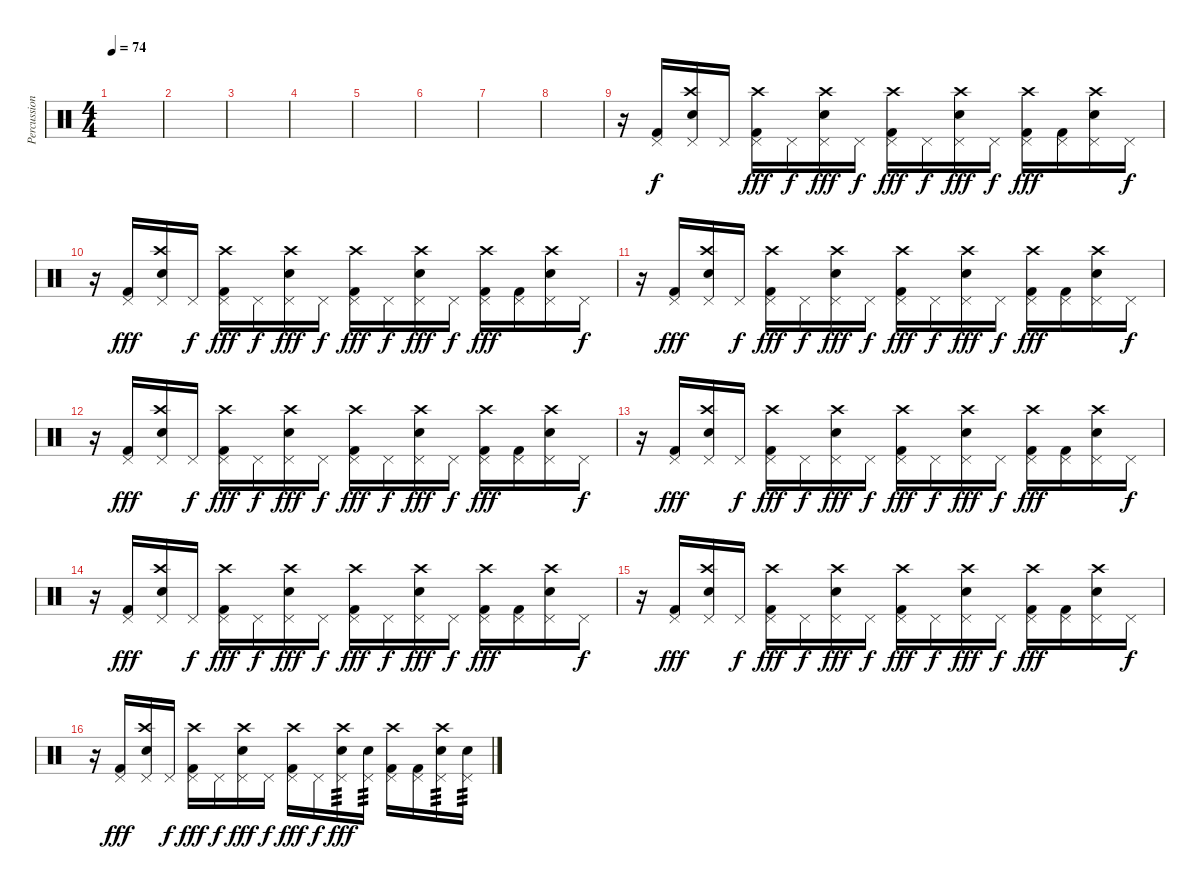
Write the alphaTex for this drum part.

\track ("Percussion" "Percussion") {instrument percussion}
\staff {score}
\articulation defaults
\ts (4 4)
\tempo 74
\clef neutral
\ks c
|
|
|
|
|
|
|
|
r.16 ("Pedal Hi-Hat (hit)" "Kick (hit) 2").16 ("Crash high (hit)" "Pedal Hi-Hat (hit)" "Electric Snare (hit)").16 "Pedal Hi-Hat (hit)".16{dy f} ("Crash high (hit)" "Pedal Hi-Hat (hit)" "Kick (hit) 2").16{dy fff} "Pedal Hi-Hat (hit)".16{dy f} ("Crash high (hit)" "Pedal Hi-Hat (hit)" "Electric Snare (hit)").16{dy fff} "Pedal Hi-Hat (hit)".16{dy f} ("Crash high (hit)" "Pedal Hi-Hat (hit)" "Kick (hit) 2").16{dy fff} "Pedal Hi-Hat (hit)".16{dy f} ("Crash high (hit)" "Pedal Hi-Hat (hit)" "Electric Snare (hit)").16{dy fff} "Pedal Hi-Hat (hit)".16{dy f} ("Crash high (hit)" "Pedal Hi-Hat (hit)" "Kick (hit) 2").16{dy fff} ("Pedal Hi-Hat (hit)" "Kick (hit) 2").16 ("Crash high (hit)" "Pedal Hi-Hat (hit)" "Electric Snare (hit)").16 "Pedal Hi-Hat (hit)".16{dy f} |
r.16{volume 0} ("Pedal Hi-Hat (hit)" "Kick (hit) 2").16{dy fff volume 13} ("Crash high (hit)" "Pedal Hi-Hat (hit)" "Electric Snare (hit)").16 "Pedal Hi-Hat (hit)".16{dy f} ("Crash high (hit)" "Pedal Hi-Hat (hit)" "Kick (hit) 2").16{dy fff} "Pedal Hi-Hat (hit)".16{dy f} ("Crash high (hit)" "Pedal Hi-Hat (hit)" "Electric Snare (hit)").16{dy fff} "Pedal Hi-Hat (hit)".16{dy f} ("Crash high (hit)" "Pedal Hi-Hat (hit)" "Kick (hit) 2").16{dy fff} "Pedal Hi-Hat (hit)".16{dy f} ("Crash high (hit)" "Pedal Hi-Hat (hit)" "Electric Snare (hit)").16{dy fff} "Pedal Hi-Hat (hit)".16{dy f} ("Crash high (hit)" "Pedal Hi-Hat (hit)" "Kick (hit) 2").16{dy fff} ("Pedal Hi-Hat (hit)" "Kick (hit) 2").16 ("Crash high (hit)" "Pedal Hi-Hat (hit)" "Electric Snare (hit)").16 "Pedal Hi-Hat (hit)".16{dy f} |
r.16{volume 0} ("Pedal Hi-Hat (hit)" "Kick (hit) 2").16{dy fff volume 13} ("Crash high (hit)" "Pedal Hi-Hat (hit)" "Electric Snare (hit)").16 "Pedal Hi-Hat (hit)".16{dy f} ("Crash high (hit)" "Pedal Hi-Hat (hit)" "Kick (hit) 2").16{dy fff} "Pedal Hi-Hat (hit)".16{dy f} ("Crash high (hit)" "Pedal Hi-Hat (hit)" "Electric Snare (hit)").16{dy fff} "Pedal Hi-Hat (hit)".16{dy f} ("Crash high (hit)" "Pedal Hi-Hat (hit)" "Kick (hit) 2").16{dy fff} "Pedal Hi-Hat (hit)".16{dy f} ("Crash high (hit)" "Pedal Hi-Hat (hit)" "Electric Snare (hit)").16{dy fff} "Pedal Hi-Hat (hit)".16{dy f} ("Crash high (hit)" "Pedal Hi-Hat (hit)" "Kick (hit) 2").16{dy fff} ("Pedal Hi-Hat (hit)" "Kick (hit) 2").16 ("Crash high (hit)" "Pedal Hi-Hat (hit)" "Electric Snare (hit)").16 "Pedal Hi-Hat (hit)".16{dy f} |
r.16{volume 0} ("Pedal Hi-Hat (hit)" "Kick (hit) 2").16{dy fff volume 13} ("Crash high (hit)" "Pedal Hi-Hat (hit)" "Electric Snare (hit)").16 "Pedal Hi-Hat (hit)".16{dy f} ("Crash high (hit)" "Pedal Hi-Hat (hit)" "Kick (hit) 2").16{dy fff} "Pedal Hi-Hat (hit)".16{dy f} ("Crash high (hit)" "Pedal Hi-Hat (hit)" "Electric Snare (hit)").16{dy fff} "Pedal Hi-Hat (hit)".16{dy f} ("Crash high (hit)" "Pedal Hi-Hat (hit)" "Kick (hit) 2").16{dy fff} "Pedal Hi-Hat (hit)".16{dy f} ("Crash high (hit)" "Pedal Hi-Hat (hit)" "Electric Snare (hit)").16{dy fff} "Pedal Hi-Hat (hit)".16{dy f} ("Crash high (hit)" "Pedal Hi-Hat (hit)" "Kick (hit) 2").16{dy fff} ("Pedal Hi-Hat (hit)" "Kick (hit) 2").16 ("Crash high (hit)" "Pedal Hi-Hat (hit)" "Electric Snare (hit)").16 "Pedal Hi-Hat (hit)".16{dy f} |
r.16{volume 0} ("Pedal Hi-Hat (hit)" "Kick (hit) 2").16{dy fff volume 13} ("Crash high (hit)" "Pedal Hi-Hat (hit)" "Electric Snare (hit)").16 "Pedal Hi-Hat (hit)".16{dy f} ("Crash high (hit)" "Pedal Hi-Hat (hit)" "Kick (hit) 2").16{dy fff} "Pedal Hi-Hat (hit)".16{dy f} ("Crash high (hit)" "Pedal Hi-Hat (hit)" "Electric Snare (hit)").16{dy fff} "Pedal Hi-Hat (hit)".16{dy f} ("Crash high (hit)" "Pedal Hi-Hat (hit)" "Kick (hit) 2").16{dy fff} "Pedal Hi-Hat (hit)".16{dy f} ("Crash high (hit)" "Pedal Hi-Hat (hit)" "Electric Snare (hit)").16{dy fff} "Pedal Hi-Hat (hit)".16{dy f} ("Crash high (hit)" "Pedal Hi-Hat (hit)" "Kick (hit) 2").16{dy fff} ("Pedal Hi-Hat (hit)" "Kick (hit) 2").16 ("Crash high (hit)" "Pedal Hi-Hat (hit)" "Electric Snare (hit)").16 "Pedal Hi-Hat (hit)".16{dy f} |
r.16{volume 0} ("Pedal Hi-Hat (hit)" "Kick (hit) 2").16{dy fff volume 13} ("Crash high (hit)" "Pedal Hi-Hat (hit)" "Electric Snare (hit)").16 "Pedal Hi-Hat (hit)".16{dy f} ("Crash high (hit)" "Pedal Hi-Hat (hit)" "Kick (hit) 2").16{dy fff} "Pedal Hi-Hat (hit)".16{dy f} ("Crash high (hit)" "Pedal Hi-Hat (hit)" "Electric Snare (hit)").16{dy fff} "Pedal Hi-Hat (hit)".16{dy f} ("Crash high (hit)" "Pedal Hi-Hat (hit)" "Kick (hit) 2").16{dy fff} "Pedal Hi-Hat (hit)".16{dy f} ("Crash high (hit)" "Pedal Hi-Hat (hit)" "Electric Snare (hit)").16{dy fff} "Pedal Hi-Hat (hit)".16{dy f} ("Crash high (hit)" "Pedal Hi-Hat (hit)" "Kick (hit) 2").16{dy fff} ("Pedal Hi-Hat (hit)" "Kick (hit) 2").16 ("Crash high (hit)" "Pedal Hi-Hat (hit)" "Electric Snare (hit)").16 "Pedal Hi-Hat (hit)".16{dy f} |
r.16{volume 0} ("Pedal Hi-Hat (hit)" "Kick (hit) 2").16{dy fff volume 13} ("Crash high (hit)" "Pedal Hi-Hat (hit)" "Electric Snare (hit)").16 "Pedal Hi-Hat (hit)".16{dy f} ("Crash high (hit)" "Pedal Hi-Hat (hit)" "Kick (hit) 2").16{dy fff} "Pedal Hi-Hat (hit)".16{dy f} ("Crash high (hit)" "Pedal Hi-Hat (hit)" "Electric Snare (hit)").16{dy fff} "Pedal Hi-Hat (hit)".16{dy f} ("Crash high (hit)" "Pedal Hi-Hat (hit)" "Kick (hit) 2").16{dy fff} "Pedal Hi-Hat (hit)".16{dy f} ("Crash high (hit)" "Pedal Hi-Hat (hit)" "Electric Snare (hit)").16{dy fff} "Pedal Hi-Hat (hit)".16{dy f} ("Crash high (hit)" "Pedal Hi-Hat (hit)" "Kick (hit) 2").16{dy fff} ("Pedal Hi-Hat (hit)" "Kick (hit) 2").16 ("Crash high (hit)" "Pedal Hi-Hat (hit)" "Electric Snare (hit)").16 "Pedal Hi-Hat (hit)".16{dy f} |
r.16{volume 0} ("Pedal Hi-Hat (hit)" "Kick (hit) 2").16{dy fff volume 13} ("Crash high (hit)" "Pedal Hi-Hat (hit)" "Electric Snare (hit)").16 "Pedal Hi-Hat (hit)".16{dy f} ("Crash high (hit)" "Pedal Hi-Hat (hit)" "Kick (hit) 2").16{dy fff} "Pedal Hi-Hat (hit)".16{dy f} ("Crash high (hit)" "Pedal Hi-Hat (hit)" "Electric Snare (hit)").16{dy fff} "Pedal Hi-Hat (hit)".16{dy f} ("Crash high (hit)" "Pedal Hi-Hat (hit)" "Kick (hit) 2").16{dy fff} "Pedal Hi-Hat (hit)".16{dy f} ("Crash high (hit)" "Pedal Hi-Hat (hit)" "Electric Snare (hit)").16{tp 3 dy fff} ("Pedal Hi-Hat (hit)" "Electric Snare (hit)").16{tp 3} ("Crash high (hit)" "Pedal Hi-Hat (hit)" "Kick (hit) 2").16 ("Pedal Hi-Hat (hit)" "Kick (hit) 2").16 ("Crash high (hit)" "Pedal Hi-Hat (hit)" "Electric Snare (hit)").16{tp 3} ("Pedal Hi-Hat (hit)" "Electric Snare (hit)").16{tp 3}
